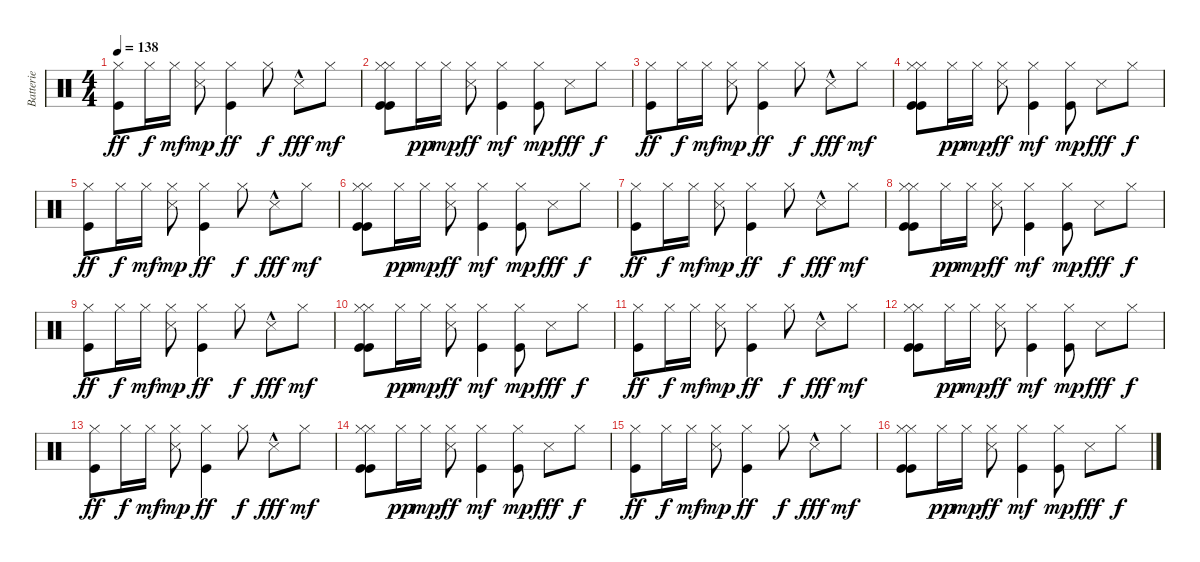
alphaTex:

\track ("Batterie" "Batterie") {instrument percussion}
\staff {score}
\articulation defaults
\ts (4 4)
\tempo 138
\clef neutral
\ks c
("Kick (hit)" "Hi-Hat (closed)").8{dy ff} "Hi-Hat (closed)".16{dy f} "Hi-Hat (closed)".16{dy mf} ("Snare (side stick) 3" "Hi-Hat (closed)").8{dy mp} ("Kick (hit)" "Hi-Hat (closed)").4{dy ff} "Hi-Hat (closed)".8{dy f} "Snare (side stick) 3"{hac}.8{dy fff} "Hi-Hat (closed)".8{dy mf} |
("Kick (hit)" "Kick (hit)" "Hi-Hat (closed)" "Hi-Hat (closed)").8 "Hi-Hat (closed)".16{dy pp} "Hi-Hat (closed)".16{dy mp} ("Snare (side stick) 3" "Hi-Hat (closed)").8{dy ff} ("Kick (hit)" "Hi-Hat (closed)").4{dy mf} ("Kick (hit)" "Hi-Hat (closed)").8{dy mp} "Snare (side stick) 3".8{dy fff} "Hi-Hat (closed)".8{dy f} |
("Kick (hit)" "Hi-Hat (closed)").8{dy ff} "Hi-Hat (closed)".16{dy f} "Hi-Hat (closed)".16{dy mf} ("Snare (side stick) 3" "Hi-Hat (closed)").8{dy mp} ("Kick (hit)" "Hi-Hat (closed)").4{dy ff} "Hi-Hat (closed)".8{dy f} "Snare (side stick) 3"{hac}.8{dy fff} "Hi-Hat (closed)".8{dy mf} |
("Kick (hit)" "Kick (hit)" "Hi-Hat (closed)" "Hi-Hat (closed)").8 "Hi-Hat (closed)".16{dy pp} "Hi-Hat (closed)".16{dy mp} ("Snare (side stick) 3" "Hi-Hat (closed)").8{dy ff} ("Kick (hit)" "Hi-Hat (closed)").4{dy mf} ("Kick (hit)" "Hi-Hat (closed)").8{dy mp} "Snare (side stick) 3".8{dy fff} "Hi-Hat (closed)".8{dy f} |
("Kick (hit)" "Hi-Hat (closed)").8{dy ff} "Hi-Hat (closed)".16{dy f} "Hi-Hat (closed)".16{dy mf} ("Snare (side stick) 3" "Hi-Hat (closed)").8{dy mp} ("Kick (hit)" "Hi-Hat (closed)").4{dy ff} "Hi-Hat (closed)".8{dy f} "Snare (side stick) 3"{hac}.8{dy fff} "Hi-Hat (closed)".8{dy mf} |
("Kick (hit)" "Kick (hit)" "Hi-Hat (closed)" "Hi-Hat (closed)").8 "Hi-Hat (closed)".16{dy pp} "Hi-Hat (closed)".16{dy mp} ("Snare (side stick) 3" "Hi-Hat (closed)").8{dy ff} ("Kick (hit)" "Hi-Hat (closed)").4{dy mf} ("Kick (hit)" "Hi-Hat (closed)").8{dy mp} "Snare (side stick) 3".8{dy fff} "Hi-Hat (closed)".8{dy f} |
("Kick (hit)" "Hi-Hat (closed)").8{dy ff} "Hi-Hat (closed)".16{dy f} "Hi-Hat (closed)".16{dy mf} ("Snare (side stick) 3" "Hi-Hat (closed)").8{dy mp} ("Kick (hit)" "Hi-Hat (closed)").4{dy ff} "Hi-Hat (closed)".8{dy f} "Snare (side stick) 3"{hac}.8{dy fff} "Hi-Hat (closed)".8{dy mf} |
("Kick (hit)" "Kick (hit)" "Hi-Hat (closed)" "Hi-Hat (closed)").8 "Hi-Hat (closed)".16{dy pp} "Hi-Hat (closed)".16{dy mp} ("Snare (side stick) 3" "Hi-Hat (closed)").8{dy ff} ("Kick (hit)" "Hi-Hat (closed)").4{dy mf} ("Kick (hit)" "Hi-Hat (closed)").8{dy mp} "Snare (side stick) 3".8{dy fff} "Hi-Hat (closed)".8{dy f} |
("Kick (hit)" "Hi-Hat (closed)").8{dy ff} "Hi-Hat (closed)".16{dy f} "Hi-Hat (closed)".16{dy mf} ("Snare (side stick) 3" "Hi-Hat (closed)").8{dy mp} ("Kick (hit)" "Hi-Hat (closed)").4{dy ff} "Hi-Hat (closed)".8{dy f} "Snare (side stick) 3"{hac}.8{dy fff} "Hi-Hat (closed)".8{dy mf} |
("Kick (hit)" "Kick (hit)" "Hi-Hat (closed)" "Hi-Hat (closed)").8 "Hi-Hat (closed)".16{dy pp} "Hi-Hat (closed)".16{dy mp} ("Snare (side stick) 3" "Hi-Hat (closed)").8{dy ff} ("Kick (hit)" "Hi-Hat (closed)").4{dy mf} ("Kick (hit)" "Hi-Hat (closed)").8{dy mp} "Snare (side stick) 3".8{dy fff} "Hi-Hat (closed)".8{dy f} |
("Kick (hit)" "Hi-Hat (closed)").8{dy ff} "Hi-Hat (closed)".16{dy f} "Hi-Hat (closed)".16{dy mf} ("Snare (side stick) 3" "Hi-Hat (closed)").8{dy mp} ("Kick (hit)" "Hi-Hat (closed)").4{dy ff} "Hi-Hat (closed)".8{dy f} "Snare (side stick) 3"{hac}.8{dy fff} "Hi-Hat (closed)".8{dy mf} |
("Kick (hit)" "Kick (hit)" "Hi-Hat (closed)" "Hi-Hat (closed)").8 "Hi-Hat (closed)".16{dy pp} "Hi-Hat (closed)".16{dy mp} ("Snare (side stick) 3" "Hi-Hat (closed)").8{dy ff} ("Kick (hit)" "Hi-Hat (closed)").4{dy mf} ("Kick (hit)" "Hi-Hat (closed)").8{dy mp} "Snare (side stick) 3".8{dy fff} "Hi-Hat (closed)".8{dy f} |
("Kick (hit)" "Hi-Hat (closed)").8{dy ff} "Hi-Hat (closed)".16{dy f} "Hi-Hat (closed)".16{dy mf} ("Snare (side stick) 3" "Hi-Hat (closed)").8{dy mp} ("Kick (hit)" "Hi-Hat (closed)").4{dy ff} "Hi-Hat (closed)".8{dy f} "Snare (side stick) 3"{hac}.8{dy fff} "Hi-Hat (closed)".8{dy mf} |
("Kick (hit)" "Kick (hit)" "Hi-Hat (closed)" "Hi-Hat (closed)").8 "Hi-Hat (closed)".16{dy pp} "Hi-Hat (closed)".16{dy mp} ("Snare (side stick) 3" "Hi-Hat (closed)").8{dy ff} ("Kick (hit)" "Hi-Hat (closed)").4{dy mf} ("Kick (hit)" "Hi-Hat (closed)").8{dy mp} "Snare (side stick) 3".8{dy fff} "Hi-Hat (closed)".8{dy f} |
("Kick (hit)" "Hi-Hat (closed)").8{dy ff} "Hi-Hat (closed)".16{dy f} "Hi-Hat (closed)".16{dy mf} ("Snare (side stick) 3" "Hi-Hat (closed)").8{dy mp} ("Kick (hit)" "Hi-Hat (closed)").4{dy ff} "Hi-Hat (closed)".8{dy f} "Snare (side stick) 3"{hac}.8{dy fff} "Hi-Hat (closed)".8{dy mf} |
("Kick (hit)" "Kick (hit)" "Hi-Hat (closed)" "Hi-Hat (closed)").8 "Hi-Hat (closed)".16{dy pp} "Hi-Hat (closed)".16{dy mp} ("Snare (side stick) 3" "Hi-Hat (closed)").8{dy ff} ("Kick (hit)" "Hi-Hat (closed)").4{dy mf} ("Kick (hit)" "Hi-Hat (closed)").8{dy mp} "Snare (side stick) 3".8{dy fff} "Hi-Hat (closed)".8{dy f}
